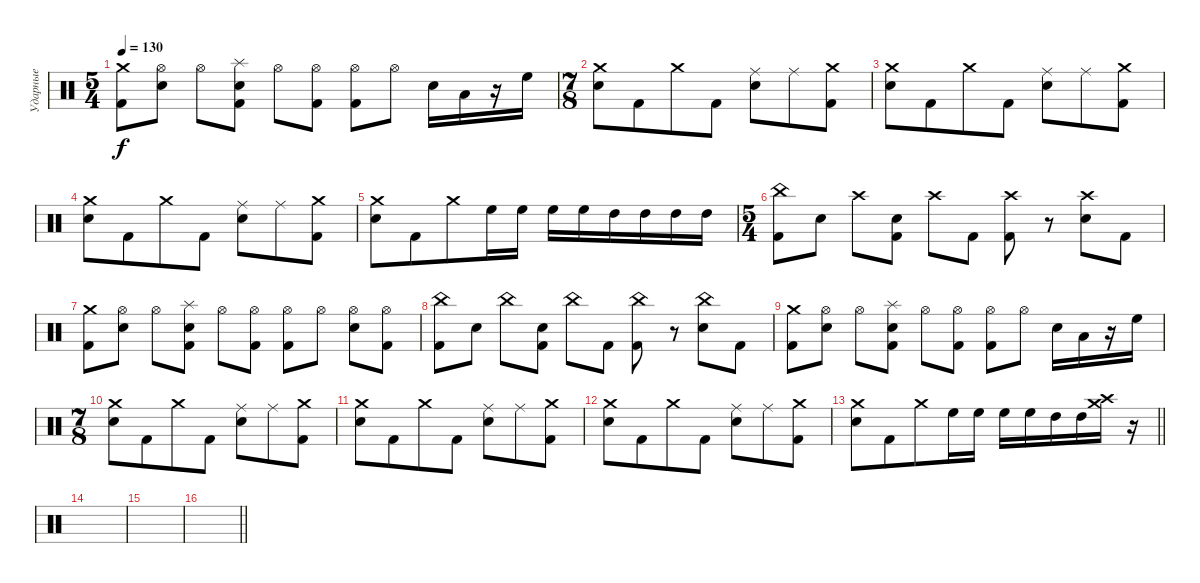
\track ("Ударные" "Ударные") {instrument percussion}
\staff {score}
\articulation defaults
\ts (5 4)
\tempo 130
\clef neutral
\ks c
("Crash medium (hit)" "Kick (hit) 2").8{dy f} ("Hi-Hat (open)" "Electric Snare (hit)").8 "Hi-Hat (open)".8 ("Splash (hit)" "Electric Snare (hit)" "Kick (hit) 2").8 "Hi-Hat (open)".8 ("Hi-Hat (open)" "Kick (hit) 2").8 ("Hi-Hat (open)" "Kick (hit) 2").8 "Hi-Hat (open)".8 "Electric Snare (hit)".16 "Low Tom (hit)".16 r.16 "High Floor Tom (hit)".16 |
\ts (7 8)
("Crash medium (hit)" "Electric Snare (hit)").8 "Kick (hit) 2".8 "Crash medium (hit)".8 "Kick (hit) 2".8 ("Ride (middle)" "Electric Snare (hit)").8 "Ride (middle)".8 ("Crash medium (hit)" "Kick (hit) 2").8 |
("Crash medium (hit)" "Electric Snare (hit)").8 "Kick (hit) 2".8 "Crash medium (hit)".8 "Kick (hit) 2".8 ("Ride (middle)" "Electric Snare (hit)").8 "Ride (middle)".8 ("Crash medium (hit)" "Kick (hit) 2").8 |
("Crash medium (hit)" "Electric Snare (hit)").8 "Kick (hit) 2".8 "Crash medium (hit)".8 "Kick (hit) 2".8 ("Ride (middle)" "Electric Snare (hit)").8 "Ride (middle)".8 ("Crash medium (hit)" "Kick (hit) 2").8 |
("Crash medium (hit)" "Electric Snare (hit)").8 "Kick (hit) 2".8 "Crash medium (hit)".8 "High Floor Tom (hit)".16 "High Floor Tom (hit)".16 "High Floor Tom (hit)".16 "High Floor Tom (hit)".16 "High Tom (hit)".16 "High Tom (hit)".16 "High Tom (hit)".16 "High Tom (hit)".16 |
\ts (5 4)
("China (hit)" "Kick (hit) 2").8 "Electric Snare (hit)".8 "Crash high (hit)".8 ("Electric Snare (hit)" "Kick (hit) 2").8 "Crash high (hit)".8 "Kick (hit) 2".8 ("Crash high (hit)" "Kick (hit) 2").8 r.8 ("Crash high (hit)" "Electric Snare (hit)").8 "Kick (hit) 2".8 |
("Crash medium (hit)" "Kick (hit) 2").8 ("Hi-Hat (open)" "Electric Snare (hit)").8 "Hi-Hat (open)".8 ("Splash (hit)" "Electric Snare (hit)" "Kick (hit) 2").8 "Hi-Hat (open)".8 ("Hi-Hat (open)" "Kick (hit) 2").8 ("Hi-Hat (open)" "Kick (hit) 2").8 "Hi-Hat (open)".8 ("Hi-Hat (open)" "Electric Snare (hit)").8 ("Hi-Hat (open)" "Kick (hit) 2").8 |
("China (hit)" "Kick (hit) 2").8 "Electric Snare (hit)".8 "China (hit)".8 ("Electric Snare (hit)" "Kick (hit) 2").8 "China (hit)".8 "Kick (hit) 2".8 ("China (hit)" "Kick (hit) 2").8 r.8 ("China (hit)" "Electric Snare (hit)").8 "Kick (hit) 2".8 |
("Crash medium (hit)" "Kick (hit) 2").8 ("Hi-Hat (open)" "Electric Snare (hit)").8 "Hi-Hat (open)".8 ("Splash (hit)" "Electric Snare (hit)" "Kick (hit) 2").8 "Hi-Hat (open)".8 ("Hi-Hat (open)" "Kick (hit) 2").8 ("Hi-Hat (open)" "Kick (hit) 2").8 "Hi-Hat (open)".8 "Electric Snare (hit)".16 "Low Tom (hit)".16 r.16 "High Floor Tom (hit)".16 |
\ts (7 8)
("Crash medium (hit)" "Electric Snare (hit)").8 "Kick (hit) 2".8 "Crash medium (hit)".8 "Kick (hit) 2".8 ("Ride (middle)" "Electric Snare (hit)").8 "Ride (middle)".8 ("Crash medium (hit)" "Kick (hit) 2").8 |
("Crash medium (hit)" "Electric Snare (hit)").8 "Kick (hit) 2".8 "Crash medium (hit)".8 "Kick (hit) 2".8 ("Ride (middle)" "Electric Snare (hit)").8 "Ride (middle)".8 ("Crash medium (hit)" "Kick (hit) 2").8 |
("Crash medium (hit)" "Electric Snare (hit)").8 "Kick (hit) 2".8 "Crash medium (hit)".8 "Kick (hit) 2".8 ("Ride (middle)" "Electric Snare (hit)").8 "Ride (middle)".8 ("Crash medium (hit)" "Kick (hit) 2").8 |
\barLineRight lightlight
("Crash medium (hit)" "Electric Snare (hit)").8 "Kick (hit) 2".8 "Crash medium (hit)".8 "High Floor Tom (hit)".16 "High Floor Tom (hit)".16 "High Floor Tom (hit)".16 "High Floor Tom (hit)".16 "High Tom (hit)".16 "High Tom (hit)".16 ("Crash high (hit)" "Crash medium (hit)").16 r.16 |
|
|
\barLineRight lightlight
